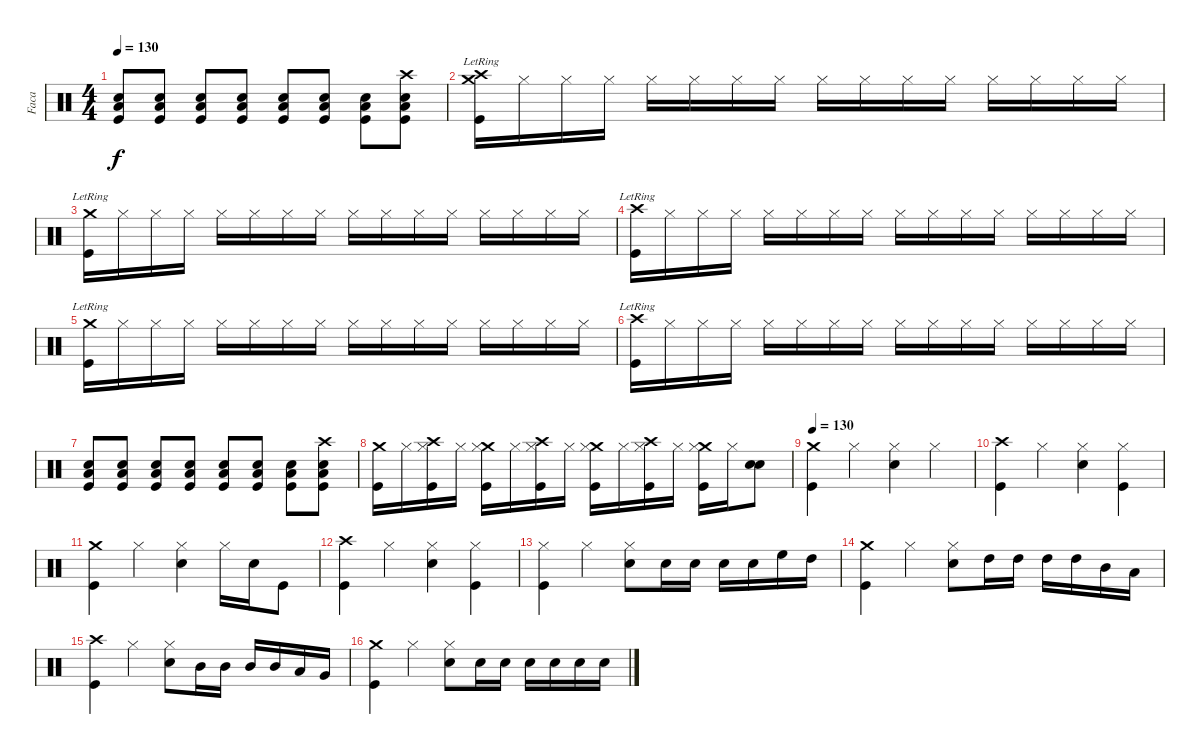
\track ("Faca" "Faca") {instrument percussion}
\staff {score}
\articulation defaults
\ts (4 4)
\tempo 130
\clef neutral
\ks c
("Snare (hit) 2" "Low Floor Tom (hit)" "Kick (hit)").8{dy f volume 3} ("Snare (hit) 2" "Low Floor Tom (hit)" "Kick (hit)").8{volume 12} ("Snare (hit) 2" "Low Floor Tom (hit)" "Kick (hit)").8 ("Snare (hit) 2" "Low Floor Tom (hit)" "Kick (hit)").8 ("Snare (hit) 2" "Low Floor Tom (hit)" "Kick (hit)").8 ("Snare (hit) 2" "Low Floor Tom (hit)" "Kick (hit)").8 ("Snare (hit) 2" "Low Floor Tom (hit)" "Kick (hit)").8 ("Crash high (hit)" "Snare (hit) 2" "Low Floor Tom (hit)" "Kick (hit)").8 |
("Crash medium (hit)"{lr} "Crash high (hit)"{lr} "Kick (hit)").16 "Hi-Hat (closed)".16 "Hi-Hat (closed)".16 "Hi-Hat (closed)".16 "Hi-Hat (closed)".16 "Hi-Hat (closed)".16 "Hi-Hat (closed)".16 "Hi-Hat (closed)".16 "Hi-Hat (closed)".16 "Hi-Hat (closed)".16 "Hi-Hat (closed)".16 "Hi-Hat (closed)".16 "Hi-Hat (closed)".16 "Hi-Hat (closed)".16 "Hi-Hat (closed)".16 "Hi-Hat (closed)".16 |
("Crash medium (hit)"{lr} "Kick (hit)").16 "Hi-Hat (closed)".16 "Hi-Hat (closed)".16 "Hi-Hat (closed)".16 "Hi-Hat (closed)".16 "Hi-Hat (closed)".16 "Hi-Hat (closed)".16 "Hi-Hat (closed)".16 "Hi-Hat (closed)".16 "Hi-Hat (closed)".16 "Hi-Hat (closed)".16 "Hi-Hat (closed)".16 "Hi-Hat (closed)".16 "Hi-Hat (closed)".16 "Hi-Hat (closed)".16 "Hi-Hat (closed)".16 |
("Crash high (hit)"{lr} "Kick (hit)").16 "Hi-Hat (closed)".16 "Hi-Hat (closed)".16 "Hi-Hat (closed)".16 "Hi-Hat (closed)".16 "Hi-Hat (closed)".16 "Hi-Hat (closed)".16 "Hi-Hat (closed)".16 "Hi-Hat (closed)".16 "Hi-Hat (closed)".16 "Hi-Hat (closed)".16 "Hi-Hat (closed)".16 "Hi-Hat (closed)".16 "Hi-Hat (closed)".16 "Hi-Hat (closed)".16 "Hi-Hat (closed)".16 |
("Crash medium (hit)"{lr} "Kick (hit)").16 "Hi-Hat (closed)".16 "Hi-Hat (closed)".16 "Hi-Hat (closed)".16 "Hi-Hat (closed)".16 "Hi-Hat (closed)".16 "Hi-Hat (closed)".16 "Hi-Hat (closed)".16 "Hi-Hat (closed)".16 "Hi-Hat (closed)".16 "Hi-Hat (closed)".16 "Hi-Hat (closed)".16 "Hi-Hat (closed)".16 "Hi-Hat (closed)".16 "Hi-Hat (closed)".16 "Hi-Hat (closed)".16 |
("Crash high (hit)"{lr} "Kick (hit)").16 "Hi-Hat (closed)".16 "Hi-Hat (closed)".16 "Hi-Hat (closed)".16 "Hi-Hat (closed)".16 "Hi-Hat (closed)".16 "Hi-Hat (closed)".16 "Hi-Hat (closed)".16 "Hi-Hat (closed)".16 "Hi-Hat (closed)".16 "Hi-Hat (closed)".16 "Hi-Hat (closed)".16 "Hi-Hat (closed)".16 "Hi-Hat (closed)".16 "Hi-Hat (closed)".16 "Hi-Hat (closed)".16 |
("Snare (hit) 2" "Low Floor Tom (hit)" "Kick (hit)").8{volume 3} ("Snare (hit) 2" "Low Floor Tom (hit)" "Kick (hit)").8{volume 12} ("Snare (hit) 2" "Low Floor Tom (hit)" "Kick (hit)").8 ("Snare (hit) 2" "Low Floor Tom (hit)" "Kick (hit)").8 ("Snare (hit) 2" "Low Floor Tom (hit)" "Kick (hit)").8 ("Snare (hit) 2" "Low Floor Tom (hit)" "Kick (hit)").8 ("Snare (hit) 2" "Low Floor Tom (hit)" "Kick (hit)").8 ("Crash high (hit)" "Snare (hit) 2" "Low Floor Tom (hit)" "Kick (hit)").8 |
("Crash medium (hit)" "Kick (hit)").16 "Hi-Hat (closed)".16 ("Crash high (hit)" "Hi-Hat (closed)" "Kick (hit)").16 "Hi-Hat (closed)".16 ("Crash medium (hit)" "Hi-Hat (closed)" "Kick (hit)").16 "Hi-Hat (closed)".16 ("Crash high (hit)" "Hi-Hat (closed)" "Kick (hit)").16 "Hi-Hat (closed)".16 ("Crash medium (hit)" "Hi-Hat (closed)" "Kick (hit)").16 "Hi-Hat (closed)".16 ("Crash high (hit)" "Hi-Hat (closed)" "Kick (hit)").16 "Hi-Hat (closed)".16 ("Crash medium (hit)" "Hi-Hat (closed)" "Kick (hit)").16 "Hi-Hat (closed)".16 ("Snare (hit) 2" "Snare (hit) 2").8{bd 240} |
\tempo 130
("Crash medium (hit)" "Kick (hit)").4 "Hi-Hat (closed)".4 ("Hi-Hat (closed)" "Snare (hit) 2").4 "Hi-Hat (closed)".4 |
("Crash high (hit)" "Kick (hit)").4 "Hi-Hat (closed)".4 ("Hi-Hat (closed)" "Snare (hit) 2").4 ("Hi-Hat (closed)" "Kick (hit)").4 |
("Crash medium (hit)" "Kick (hit)").4 "Hi-Hat (closed)".4 ("Hi-Hat (closed)" "Snare (hit) 2").4 "Hi-Hat (closed)".16 "Snare (hit) 2".16 "Kick (hit)".8 |
("Crash high (hit)" "Kick (hit)").4 "Hi-Hat (closed)".4 ("Hi-Hat (closed)" "Snare (hit) 2").4 ("Hi-Hat (closed)" "Kick (hit)").4 |
("Hi-Hat (closed)" "Kick (hit)").4 "Hi-Hat (closed)".4 ("Hi-Hat (closed)" "Snare (hit) 2").8 "Snare (hit) 2".16 "Snare (hit) 2".16 "Snare (hit) 2".16 "Snare (hit) 2".16 "High Floor Tom (hit)".16 "High Tom (hit)".16 |
("Crash medium (hit)" "Kick (hit)").4 "Hi-Hat (closed)".4 ("Hi-Hat (closed)" "Snare (hit) 2").8 "High Tom (hit)".16 "High Tom (hit)".16 "High Tom (hit)".16 "High Tom (hit)".16 "Mid Tom (hit)".16 "Low Tom (hit)".16 |
("Crash high (hit)" "Kick (hit)").4 "Hi-Hat (closed)".4 ("Hi-Hat (closed)" "Snare (hit) 2").8 "Mid Tom (hit)".16 "Mid Tom (hit)".16 "Mid Tom (hit)".16 "Mid Tom (hit)".16 "Low Tom (hit)".16 "Very Low Tom (hit)".16 |
("Crash medium (hit)" "Kick (hit)").4 "Hi-Hat (closed)".4 ("Hi-Hat (closed)" "Snare (hit) 2").8 "Snare (hit) 2".16 "Snare (hit) 2".16 "Snare (hit) 2".16 "Snare (hit) 2".16 "Snare (hit) 2".16 "Snare (hit) 2".16
